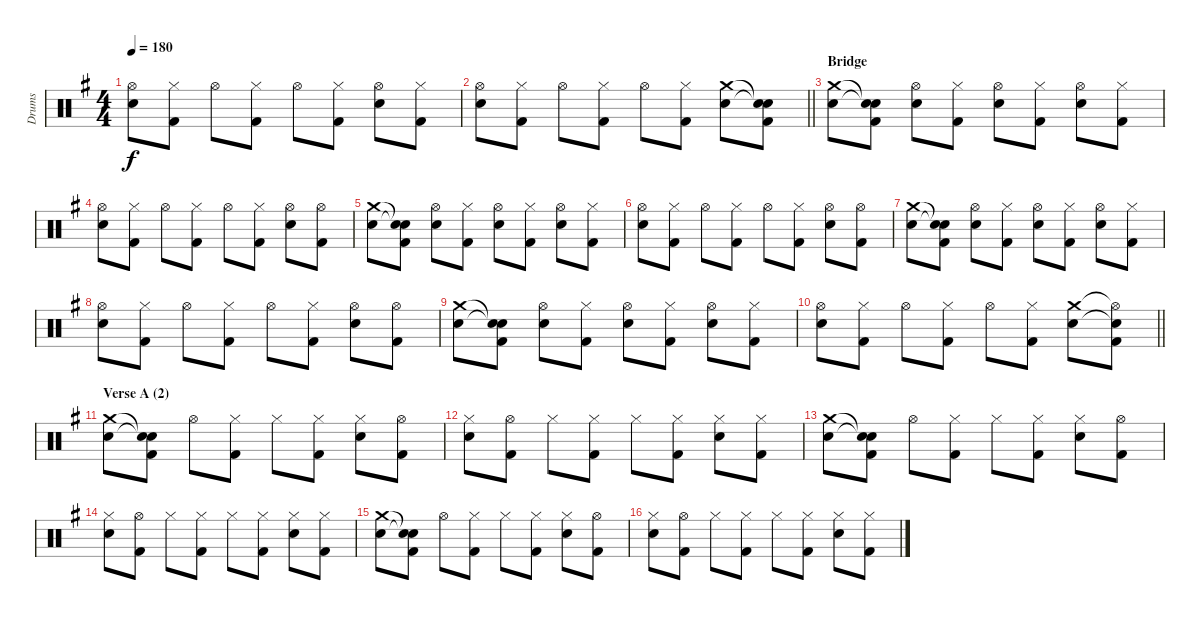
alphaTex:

\track ("Drums" "Drums") {instrument percussion}
\staff {score}
\articulation defaults
\ts (4 4)
\tempo 180
\clef neutral
\ks g
("Hi-Hat (open)" "Electric Snare (hit)").8{dy f} ("Hi-Hat (closed)" "Kick (hit) 2").8 "Hi-Hat (open)".8 ("Hi-Hat (closed)" "Kick (hit) 2").8 "Hi-Hat (open)".8 ("Hi-Hat (closed)" "Kick (hit) 2").8 ("Hi-Hat (open)" "Electric Snare (hit)").8 ("Hi-Hat (closed)" "Kick (hit) 2").8 |
\barLineRight lightlight
("Hi-Hat (open)" "Electric Snare (hit)").8 ("Hi-Hat (closed)" "Kick (hit) 2").8 "Hi-Hat (open)".8 ("Hi-Hat (closed)" "Kick (hit) 2").8 "Hi-Hat (open)".8 ("Hi-Hat (closed)" "Kick (hit) 2").8 ("Crash medium (hit)" "Electric Snare (hit)").8 ("Snare (hit)"{t} "Snare (hit)"{t} "Kick (hit) 2").8 |
\section ("" "Bridge")
("Crash medium (hit)" "Electric Snare (hit)").8 ("Snare (hit)"{t} "Snare (hit)"{t} "Kick (hit) 2").8 ("Hi-Hat (open)" "Electric Snare (hit)").8 ("Hi-Hat (closed)" "Kick (hit) 2").8 ("Hi-Hat (open)" "Electric Snare (hit)").8 ("Hi-Hat (closed)" "Kick (hit) 2").8 ("Hi-Hat (open)" "Electric Snare (hit)").8 ("Hi-Hat (closed)" "Kick (hit) 2").8 |
("Hi-Hat (open)" "Electric Snare (hit)").8 ("Hi-Hat (closed)" "Kick (hit) 2").8 "Hi-Hat (open)".8 ("Hi-Hat (closed)" "Kick (hit) 2").8 "Hi-Hat (open)".8 ("Hi-Hat (closed)" "Kick (hit) 2").8 ("Hi-Hat (open)" "Electric Snare (hit)").8 ("Hi-Hat (open)" "Kick (hit) 2").8 |
("Crash medium (hit)" "Electric Snare (hit)").8 ("Snare (hit)"{t} "Snare (hit)"{t} "Kick (hit) 2").8 ("Hi-Hat (open)" "Electric Snare (hit)").8 ("Hi-Hat (closed)" "Kick (hit) 2").8 ("Hi-Hat (open)" "Electric Snare (hit)").8 ("Hi-Hat (closed)" "Kick (hit) 2").8 ("Hi-Hat (open)" "Electric Snare (hit)").8 ("Hi-Hat (closed)" "Kick (hit) 2").8 |
("Hi-Hat (open)" "Electric Snare (hit)").8 ("Hi-Hat (closed)" "Kick (hit) 2").8 "Hi-Hat (open)".8 ("Hi-Hat (closed)" "Kick (hit) 2").8 "Hi-Hat (open)".8 ("Hi-Hat (closed)" "Kick (hit) 2").8 ("Hi-Hat (open)" "Electric Snare (hit)").8 ("Hi-Hat (open)" "Kick (hit) 2").8 |
("Crash medium (hit)" "Electric Snare (hit)").8 ("Snare (hit)"{t} "Snare (hit)"{t} "Kick (hit) 2").8 ("Hi-Hat (open)" "Electric Snare (hit)").8 ("Hi-Hat (closed)" "Kick (hit) 2").8 ("Hi-Hat (open)" "Electric Snare (hit)").8 ("Hi-Hat (closed)" "Kick (hit) 2").8 ("Hi-Hat (open)" "Electric Snare (hit)").8 ("Hi-Hat (closed)" "Kick (hit) 2").8 |
("Hi-Hat (open)" "Electric Snare (hit)").8 ("Hi-Hat (closed)" "Kick (hit) 2").8 "Hi-Hat (open)".8 ("Hi-Hat (closed)" "Kick (hit) 2").8 "Hi-Hat (open)".8 ("Hi-Hat (closed)" "Kick (hit) 2").8 ("Hi-Hat (open)" "Electric Snare (hit)").8 ("Hi-Hat (open)" "Kick (hit) 2").8 |
("Crash medium (hit)" "Electric Snare (hit)").8 ("Snare (hit)"{t} "Snare (hit)"{t} "Kick (hit) 2").8 ("Hi-Hat (open)" "Electric Snare (hit)").8 ("Hi-Hat (closed)" "Kick (hit) 2").8 ("Hi-Hat (open)" "Electric Snare (hit)").8 ("Hi-Hat (closed)" "Kick (hit) 2").8 ("Hi-Hat (open)" "Electric Snare (hit)").8 ("Hi-Hat (closed)" "Kick (hit) 2").8 |
\barLineRight lightlight
("Hi-Hat (open)" "Electric Snare (hit)").8 ("Hi-Hat (closed)" "Kick (hit) 2").8 "Hi-Hat (open)".8 ("Hi-Hat (closed)" "Kick (hit) 2").8 "Hi-Hat (open)".8 ("Hi-Hat (closed)" "Kick (hit) 2").8 ("Crash medium (hit)" "Electric Snare (hit)").8 ("Hi-Hat (open)"{t} "Snare (hit)"{t} "Kick (hit) 2").8 |
\section ("" "Verse A (2)")
("Crash medium (hit)" "Electric Snare (hit)").8 ("Snare (hit)"{t} "Snare (hit)"{t} "Kick (hit) 2").8 "Hi-Hat (open)".8 ("Hi-Hat (closed)" "Kick (hit) 2").8 "Hi-Hat (closed)".8 ("Hi-Hat (closed)" "Kick (hit) 2").8 ("Hi-Hat (closed)" "Electric Snare (hit)").8 ("Hi-Hat (open)" "Kick (hit) 2").8 |
("Hi-Hat (closed)" "Electric Snare (hit)").8 ("Hi-Hat (open)" "Kick (hit) 2").8 "Hi-Hat (closed)".8 ("Hi-Hat (closed)" "Kick (hit) 2").8 "Hi-Hat (closed)".8 ("Hi-Hat (closed)" "Kick (hit) 2").8 ("Hi-Hat (closed)" "Electric Snare (hit)").8 ("Hi-Hat (closed)" "Kick (hit) 2").8 |
("Crash medium (hit)" "Electric Snare (hit)").8 ("Snare (hit)"{t} "Snare (hit)"{t} "Kick (hit) 2").8 "Hi-Hat (open)".8 ("Hi-Hat (closed)" "Kick (hit) 2").8 "Hi-Hat (closed)".8 ("Hi-Hat (closed)" "Kick (hit) 2").8 ("Hi-Hat (closed)" "Electric Snare (hit)").8 ("Hi-Hat (open)" "Kick (hit) 2").8 |
("Hi-Hat (closed)" "Electric Snare (hit)").8 ("Hi-Hat (open)" "Kick (hit) 2").8 "Hi-Hat (closed)".8 ("Hi-Hat (closed)" "Kick (hit) 2").8 "Hi-Hat (closed)".8 ("Hi-Hat (closed)" "Kick (hit) 2").8 ("Hi-Hat (closed)" "Electric Snare (hit)").8 ("Hi-Hat (closed)" "Kick (hit) 2").8 |
("Crash medium (hit)" "Electric Snare (hit)").8 ("Snare (hit)"{t} "Snare (hit)"{t} "Kick (hit) 2").8 "Hi-Hat (open)".8 ("Hi-Hat (closed)" "Kick (hit) 2").8 "Hi-Hat (closed)".8 ("Hi-Hat (closed)" "Kick (hit) 2").8 ("Hi-Hat (closed)" "Electric Snare (hit)").8 ("Hi-Hat (open)" "Kick (hit) 2").8 |
("Hi-Hat (closed)" "Electric Snare (hit)").8 ("Hi-Hat (open)" "Kick (hit) 2").8 "Hi-Hat (closed)".8 ("Hi-Hat (closed)" "Kick (hit) 2").8 "Hi-Hat (closed)".8 ("Hi-Hat (closed)" "Kick (hit) 2").8 ("Hi-Hat (closed)" "Electric Snare (hit)").8 ("Hi-Hat (closed)" "Kick (hit) 2").8
